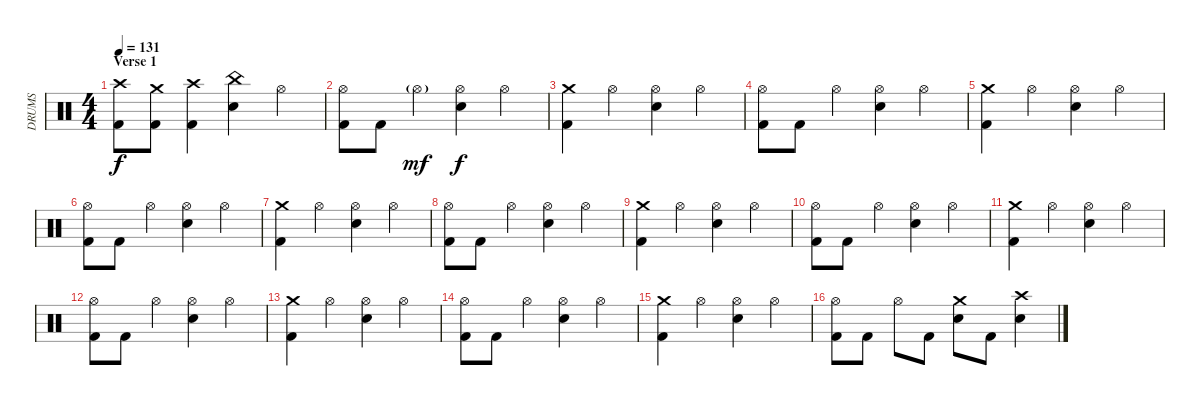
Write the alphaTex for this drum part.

\track ("DRUMS" "DRUMS") {instrument percussion}
\staff {score}
\articulation defaults
\ts (4 4)
\section ("" "Verse 1")
\tempo 131
\clef neutral
\ks c
("Crash high (hit)" "Kick (hit) 2").8{dy f} ("Crash medium (hit)" "Kick (hit) 2").8 ("Crash high (hit)" "Kick (hit) 2").4 ("China (hit)" "Snare (hit) 2").4 "Hi-Hat (open)".4 |
("Hi-Hat (open)" "Kick (hit) 2").8 "Kick (hit) 2".8 "Hi-Hat (open)"{g}.4{dy mf} ("Hi-Hat (open)" "Snare (hit) 2").4{dy f} "Hi-Hat (open)".4 |
("Crash medium (hit)" "Kick (hit) 2").4 "Hi-Hat (open)".4 ("Hi-Hat (open)" "Snare (hit) 2").4 "Hi-Hat (open)".4 |
("Hi-Hat (open)" "Kick (hit) 2").8 "Kick (hit) 2".8 "Hi-Hat (open)".4 ("Hi-Hat (open)" "Snare (hit) 2").4 "Hi-Hat (open)".4 |
("Crash medium (hit)" "Kick (hit) 2").4 "Hi-Hat (open)".4 ("Hi-Hat (open)" "Snare (hit) 2").4 "Hi-Hat (open)".4 |
("Hi-Hat (open)" "Kick (hit) 2").8 "Kick (hit) 2".8 "Hi-Hat (open)".4 ("Hi-Hat (open)" "Snare (hit) 2").4 "Hi-Hat (open)".4 |
("Crash medium (hit)" "Kick (hit) 2").4 "Hi-Hat (open)".4 ("Hi-Hat (open)" "Snare (hit) 2").4 "Hi-Hat (open)".4 |
("Hi-Hat (open)" "Kick (hit) 2").8 "Kick (hit) 2".8 "Hi-Hat (open)".4 ("Hi-Hat (open)" "Snare (hit) 2").4 "Hi-Hat (open)".4 |
("Crash medium (hit)" "Kick (hit) 2").4 "Hi-Hat (open)".4 ("Hi-Hat (open)" "Snare (hit) 2").4 "Hi-Hat (open)".4 |
("Hi-Hat (open)" "Kick (hit) 2").8 "Kick (hit) 2".8 "Hi-Hat (open)".4 ("Hi-Hat (open)" "Snare (hit) 2").4 "Hi-Hat (open)".4 |
("Crash medium (hit)" "Kick (hit) 2").4 "Hi-Hat (open)".4 ("Hi-Hat (open)" "Snare (hit) 2").4 "Hi-Hat (open)".4 |
("Hi-Hat (open)" "Kick (hit) 2").8 "Kick (hit) 2".8 "Hi-Hat (open)".4 ("Hi-Hat (open)" "Snare (hit) 2").4 "Hi-Hat (open)".4 |
("Crash medium (hit)" "Kick (hit) 2").4 "Hi-Hat (open)".4 ("Hi-Hat (open)" "Snare (hit) 2").4 "Hi-Hat (open)".4 |
("Hi-Hat (open)" "Kick (hit) 2").8 "Kick (hit) 2".8 "Hi-Hat (open)".4 ("Hi-Hat (open)" "Snare (hit) 2").4 "Hi-Hat (open)".4 |
("Crash medium (hit)" "Kick (hit) 2").4 "Hi-Hat (open)".4 ("Hi-Hat (open)" "Snare (hit) 2").4 "Hi-Hat (open)".4 |
("Hi-Hat (open)" "Kick (hit) 2").8 "Kick (hit) 2".8 "Hi-Hat (open)".8 "Kick (hit) 2".8 ("Crash medium (hit)" "Snare (hit) 2").8 "Kick (hit) 2".8 ("Crash high (hit)" "Snare (hit) 2").4
